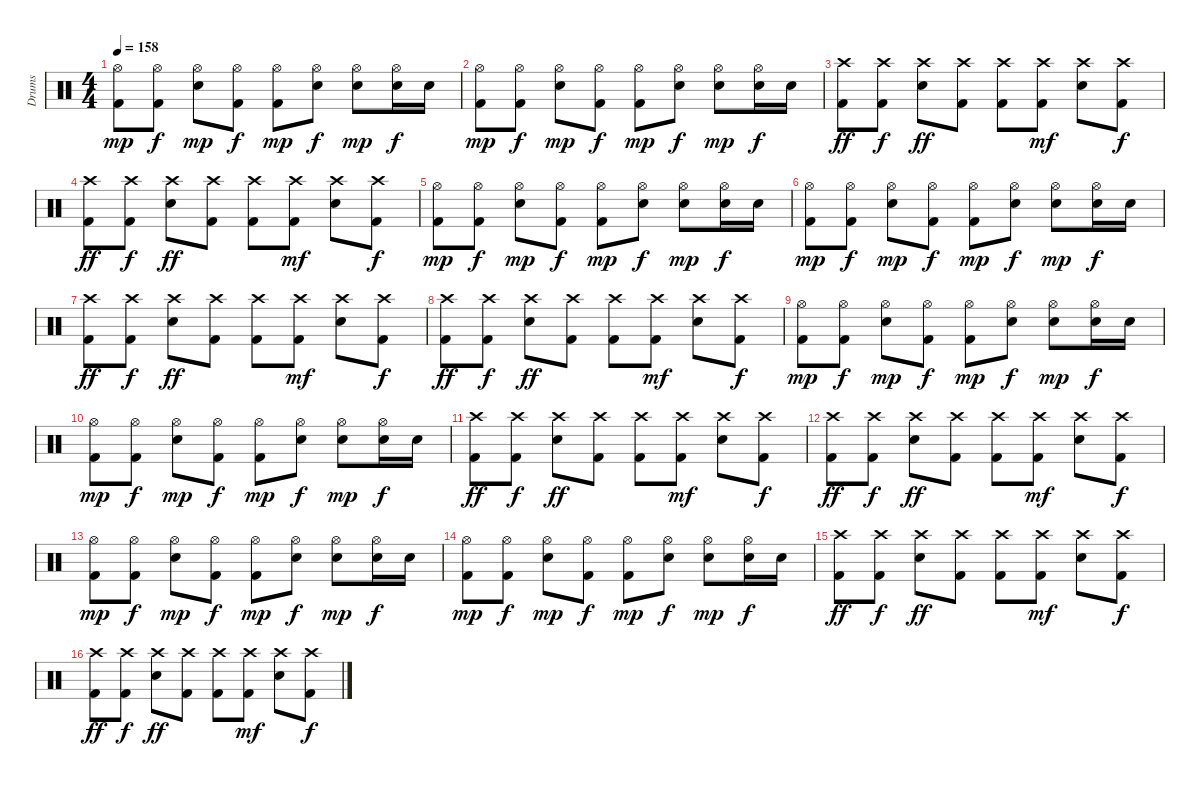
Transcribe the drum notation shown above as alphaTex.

\track ("Drums" "Drums") {instrument percussion}
\staff {score}
\articulation defaults
\ts (4 4)
\tempo 158
\clef neutral
\ks c
("Hi-Hat (open)" "Kick (hit) 2").8{dy mp} ("Hi-Hat (open)" "Kick (hit) 2").8{dy f} ("Hi-Hat (open)" "Snare (hit) 2").8{dy mp} ("Hi-Hat (open)" "Kick (hit) 2").8{dy f} ("Hi-Hat (open)" "Kick (hit) 2").8{dy mp} ("Hi-Hat (open)" "Snare (hit) 2").8{dy f} ("Hi-Hat (open)" "Snare (hit) 2").8{dy mp} ("Hi-Hat (open)" "Snare (hit) 2").16{dy f} "Snare (hit) 2".16 |
("Hi-Hat (open)" "Kick (hit) 2").8{dy mp} ("Hi-Hat (open)" "Kick (hit) 2").8{dy f} ("Hi-Hat (open)" "Snare (hit) 2").8{dy mp} ("Hi-Hat (open)" "Kick (hit) 2").8{dy f} ("Hi-Hat (open)" "Kick (hit) 2").8{dy mp} ("Hi-Hat (open)" "Snare (hit) 2").8{dy f} ("Hi-Hat (open)" "Snare (hit) 2").8{dy mp} ("Hi-Hat (open)" "Snare (hit) 2").16{dy f} "Snare (hit) 2".16 |
("Crash high (hit)" "Kick (hit) 2").8{dy ff} ("Crash high (hit)" "Kick (hit) 2").8{dy f} ("Crash high (hit)" "Snare (hit) 2").8{dy ff} ("Crash high (hit)" "Kick (hit) 2").8 ("Crash high (hit)" "Kick (hit) 2").8 ("Crash high (hit)" "Kick (hit) 2").8{dy mf} ("Crash high (hit)" "Snare (hit) 2").8 ("Crash high (hit)" "Kick (hit) 2").8{dy f} |
("Crash high (hit)" "Kick (hit) 2").8{dy ff} ("Crash high (hit)" "Kick (hit) 2").8{dy f} ("Crash high (hit)" "Snare (hit) 2").8{dy ff} ("Crash high (hit)" "Kick (hit) 2").8 ("Crash high (hit)" "Kick (hit) 2").8 ("Crash high (hit)" "Kick (hit) 2").8{dy mf} ("Crash high (hit)" "Snare (hit) 2").8 ("Crash high (hit)" "Kick (hit) 2").8{dy f} |
("Hi-Hat (open)" "Kick (hit) 2").8{dy mp} ("Hi-Hat (open)" "Kick (hit) 2").8{dy f} ("Hi-Hat (open)" "Snare (hit) 2").8{dy mp} ("Hi-Hat (open)" "Kick (hit) 2").8{dy f} ("Hi-Hat (open)" "Kick (hit) 2").8{dy mp} ("Hi-Hat (open)" "Snare (hit) 2").8{dy f} ("Hi-Hat (open)" "Snare (hit) 2").8{dy mp} ("Hi-Hat (open)" "Snare (hit) 2").16{dy f} "Snare (hit) 2".16 |
("Hi-Hat (open)" "Kick (hit) 2").8{dy mp} ("Hi-Hat (open)" "Kick (hit) 2").8{dy f} ("Hi-Hat (open)" "Snare (hit) 2").8{dy mp} ("Hi-Hat (open)" "Kick (hit) 2").8{dy f} ("Hi-Hat (open)" "Kick (hit) 2").8{dy mp} ("Hi-Hat (open)" "Snare (hit) 2").8{dy f} ("Hi-Hat (open)" "Snare (hit) 2").8{dy mp} ("Hi-Hat (open)" "Snare (hit) 2").16{dy f} "Snare (hit) 2".16 |
("Crash high (hit)" "Kick (hit) 2").8{dy ff} ("Crash high (hit)" "Kick (hit) 2").8{dy f} ("Crash high (hit)" "Snare (hit) 2").8{dy ff} ("Crash high (hit)" "Kick (hit) 2").8 ("Crash high (hit)" "Kick (hit) 2").8 ("Crash high (hit)" "Kick (hit) 2").8{dy mf} ("Crash high (hit)" "Snare (hit) 2").8 ("Crash high (hit)" "Kick (hit) 2").8{dy f} |
("Crash high (hit)" "Kick (hit) 2").8{dy ff} ("Crash high (hit)" "Kick (hit) 2").8{dy f} ("Crash high (hit)" "Snare (hit) 2").8{dy ff} ("Crash high (hit)" "Kick (hit) 2").8 ("Crash high (hit)" "Kick (hit) 2").8 ("Crash high (hit)" "Kick (hit) 2").8{dy mf} ("Crash high (hit)" "Snare (hit) 2").8 ("Crash high (hit)" "Kick (hit) 2").8{dy f} |
("Hi-Hat (open)" "Kick (hit) 2").8{dy mp} ("Hi-Hat (open)" "Kick (hit) 2").8{dy f} ("Hi-Hat (open)" "Snare (hit) 2").8{dy mp} ("Hi-Hat (open)" "Kick (hit) 2").8{dy f} ("Hi-Hat (open)" "Kick (hit) 2").8{dy mp} ("Hi-Hat (open)" "Snare (hit) 2").8{dy f} ("Hi-Hat (open)" "Snare (hit) 2").8{dy mp} ("Hi-Hat (open)" "Snare (hit) 2").16{dy f} "Snare (hit) 2".16 |
("Hi-Hat (open)" "Kick (hit) 2").8{dy mp} ("Hi-Hat (open)" "Kick (hit) 2").8{dy f} ("Hi-Hat (open)" "Snare (hit) 2").8{dy mp} ("Hi-Hat (open)" "Kick (hit) 2").8{dy f} ("Hi-Hat (open)" "Kick (hit) 2").8{dy mp} ("Hi-Hat (open)" "Snare (hit) 2").8{dy f} ("Hi-Hat (open)" "Snare (hit) 2").8{dy mp} ("Hi-Hat (open)" "Snare (hit) 2").16{dy f} "Snare (hit) 2".16 |
("Crash high (hit)" "Kick (hit) 2").8{dy ff} ("Crash high (hit)" "Kick (hit) 2").8{dy f} ("Crash high (hit)" "Snare (hit) 2").8{dy ff} ("Crash high (hit)" "Kick (hit) 2").8 ("Crash high (hit)" "Kick (hit) 2").8 ("Crash high (hit)" "Kick (hit) 2").8{dy mf} ("Crash high (hit)" "Snare (hit) 2").8 ("Crash high (hit)" "Kick (hit) 2").8{dy f} |
("Crash high (hit)" "Kick (hit) 2").8{dy ff} ("Crash high (hit)" "Kick (hit) 2").8{dy f} ("Crash high (hit)" "Snare (hit) 2").8{dy ff} ("Crash high (hit)" "Kick (hit) 2").8 ("Crash high (hit)" "Kick (hit) 2").8 ("Crash high (hit)" "Kick (hit) 2").8{dy mf} ("Crash high (hit)" "Snare (hit) 2").8 ("Crash high (hit)" "Kick (hit) 2").8{dy f} |
("Hi-Hat (open)" "Kick (hit) 2").8{dy mp} ("Hi-Hat (open)" "Kick (hit) 2").8{dy f} ("Hi-Hat (open)" "Snare (hit) 2").8{dy mp} ("Hi-Hat (open)" "Kick (hit) 2").8{dy f} ("Hi-Hat (open)" "Kick (hit) 2").8{dy mp} ("Hi-Hat (open)" "Snare (hit) 2").8{dy f} ("Hi-Hat (open)" "Snare (hit) 2").8{dy mp} ("Hi-Hat (open)" "Snare (hit) 2").16{dy f} "Snare (hit) 2".16 |
("Hi-Hat (open)" "Kick (hit) 2").8{dy mp} ("Hi-Hat (open)" "Kick (hit) 2").8{dy f} ("Hi-Hat (open)" "Snare (hit) 2").8{dy mp} ("Hi-Hat (open)" "Kick (hit) 2").8{dy f} ("Hi-Hat (open)" "Kick (hit) 2").8{dy mp} ("Hi-Hat (open)" "Snare (hit) 2").8{dy f} ("Hi-Hat (open)" "Snare (hit) 2").8{dy mp} ("Hi-Hat (open)" "Snare (hit) 2").16{dy f} "Snare (hit) 2".16 |
("Crash high (hit)" "Kick (hit) 2").8{dy ff} ("Crash high (hit)" "Kick (hit) 2").8{dy f} ("Crash high (hit)" "Snare (hit) 2").8{dy ff} ("Crash high (hit)" "Kick (hit) 2").8 ("Crash high (hit)" "Kick (hit) 2").8 ("Crash high (hit)" "Kick (hit) 2").8{dy mf} ("Crash high (hit)" "Snare (hit) 2").8 ("Crash high (hit)" "Kick (hit) 2").8{dy f} |
("Crash high (hit)" "Kick (hit) 2").8{dy ff} ("Crash high (hit)" "Kick (hit) 2").8{dy f} ("Crash high (hit)" "Snare (hit) 2").8{dy ff} ("Crash high (hit)" "Kick (hit) 2").8 ("Crash high (hit)" "Kick (hit) 2").8 ("Crash high (hit)" "Kick (hit) 2").8{dy mf} ("Crash high (hit)" "Snare (hit) 2").8 ("Crash high (hit)" "Kick (hit) 2").8{dy f}
